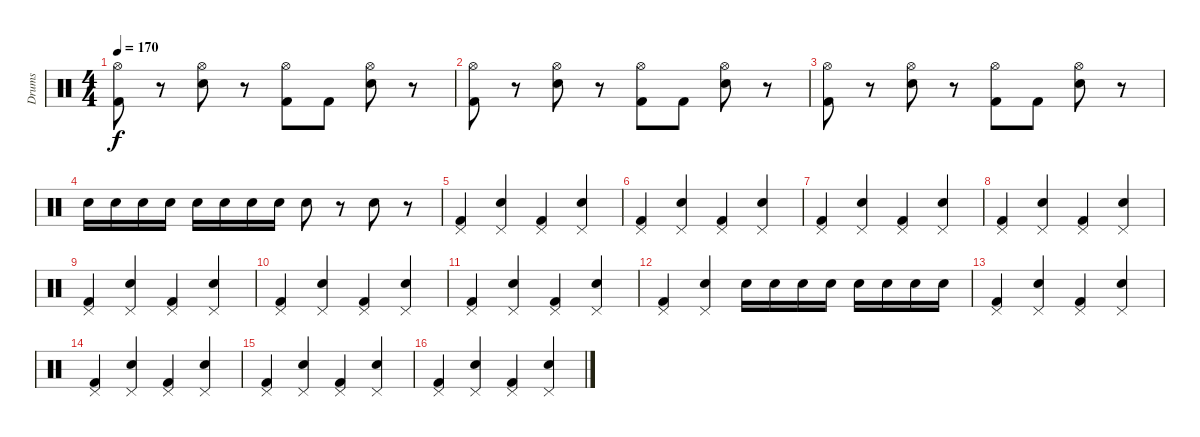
\track ("Drums" "Drums") {instrument percussion}
\staff {score}
\articulation defaults
\ts (4 4)
\tempo 170
\clef neutral
\ks c
("Hi-Hat (open)" "Kick (hit) 2").8{dy f} r.8 ("Hi-Hat (open)" "Snare (hit) 2").8 r.8 ("Hi-Hat (open)" "Kick (hit) 2").8 "Kick (hit) 2".8 ("Hi-Hat (open)" "Snare (hit) 2").8 r.8 |
("Hi-Hat (open)" "Kick (hit) 2").8 r.8 ("Hi-Hat (open)" "Snare (hit) 2").8 r.8 ("Hi-Hat (open)" "Kick (hit) 2").8 "Kick (hit) 2".8 ("Hi-Hat (open)" "Snare (hit) 2").8 r.8 |
("Hi-Hat (open)" "Kick (hit) 2").8 r.8 ("Hi-Hat (open)" "Snare (hit) 2").8 r.8 ("Hi-Hat (open)" "Kick (hit) 2").8 "Kick (hit) 2".8 ("Hi-Hat (open)" "Snare (hit) 2").8 r.8 |
"Snare (hit) 2".16 "Snare (hit) 2".16 "Snare (hit) 2".16 "Snare (hit) 2".16 "Snare (hit) 2".16 "Snare (hit) 2".16 "Snare (hit) 2".16 "Snare (hit) 2".16 "Snare (hit) 2".8 r.8 "Snare (hit) 2".8 r.8 |
("Pedal Hi-Hat (hit)" "Kick (hit) 2").4 ("Pedal Hi-Hat (hit)" "Snare (hit) 2").4 ("Pedal Hi-Hat (hit)" "Kick (hit) 2").4 ("Pedal Hi-Hat (hit)" "Snare (hit) 2").4 |
("Pedal Hi-Hat (hit)" "Kick (hit) 2").4 ("Pedal Hi-Hat (hit)" "Snare (hit) 2").4 ("Pedal Hi-Hat (hit)" "Kick (hit) 2").4 ("Pedal Hi-Hat (hit)" "Snare (hit) 2").4 |
("Pedal Hi-Hat (hit)" "Kick (hit) 2").4 ("Pedal Hi-Hat (hit)" "Snare (hit) 2").4 ("Pedal Hi-Hat (hit)" "Kick (hit) 2").4 ("Pedal Hi-Hat (hit)" "Snare (hit) 2").4 |
("Pedal Hi-Hat (hit)" "Kick (hit) 2").4 ("Pedal Hi-Hat (hit)" "Snare (hit) 2").4 ("Pedal Hi-Hat (hit)" "Kick (hit) 2").4 ("Pedal Hi-Hat (hit)" "Snare (hit) 2").4 |
("Pedal Hi-Hat (hit)" "Kick (hit) 2").4 ("Pedal Hi-Hat (hit)" "Snare (hit) 2").4 ("Pedal Hi-Hat (hit)" "Kick (hit) 2").4 ("Pedal Hi-Hat (hit)" "Snare (hit) 2").4 |
("Pedal Hi-Hat (hit)" "Kick (hit) 2").4 ("Pedal Hi-Hat (hit)" "Snare (hit) 2").4 ("Pedal Hi-Hat (hit)" "Kick (hit) 2").4 ("Pedal Hi-Hat (hit)" "Snare (hit) 2").4 |
("Pedal Hi-Hat (hit)" "Kick (hit) 2").4 ("Pedal Hi-Hat (hit)" "Snare (hit) 2").4 ("Pedal Hi-Hat (hit)" "Kick (hit) 2").4 ("Pedal Hi-Hat (hit)" "Snare (hit) 2").4 |
("Pedal Hi-Hat (hit)" "Kick (hit) 2").4 ("Pedal Hi-Hat (hit)" "Snare (hit) 2").4 "Snare (hit) 2".16 "Snare (hit) 2".16 "Snare (hit) 2".16 "Snare (hit) 2".16 "Snare (hit) 2".16 "Snare (hit) 2".16 "Snare (hit) 2".16 "Snare (hit) 2".16 |
("Pedal Hi-Hat (hit)" "Kick (hit) 2").4 ("Pedal Hi-Hat (hit)" "Snare (hit) 2").4 ("Pedal Hi-Hat (hit)" "Kick (hit) 2").4 ("Pedal Hi-Hat (hit)" "Snare (hit) 2").4 |
("Pedal Hi-Hat (hit)" "Kick (hit) 2").4 ("Pedal Hi-Hat (hit)" "Snare (hit) 2").4 ("Pedal Hi-Hat (hit)" "Kick (hit) 2").4 ("Pedal Hi-Hat (hit)" "Snare (hit) 2").4 |
("Pedal Hi-Hat (hit)" "Kick (hit) 2").4 ("Pedal Hi-Hat (hit)" "Snare (hit) 2").4 ("Pedal Hi-Hat (hit)" "Kick (hit) 2").4 ("Pedal Hi-Hat (hit)" "Snare (hit) 2").4 |
("Pedal Hi-Hat (hit)" "Kick (hit) 2").4 ("Pedal Hi-Hat (hit)" "Snare (hit) 2").4 ("Pedal Hi-Hat (hit)" "Kick (hit) 2").4 ("Pedal Hi-Hat (hit)" "Snare (hit) 2").4
